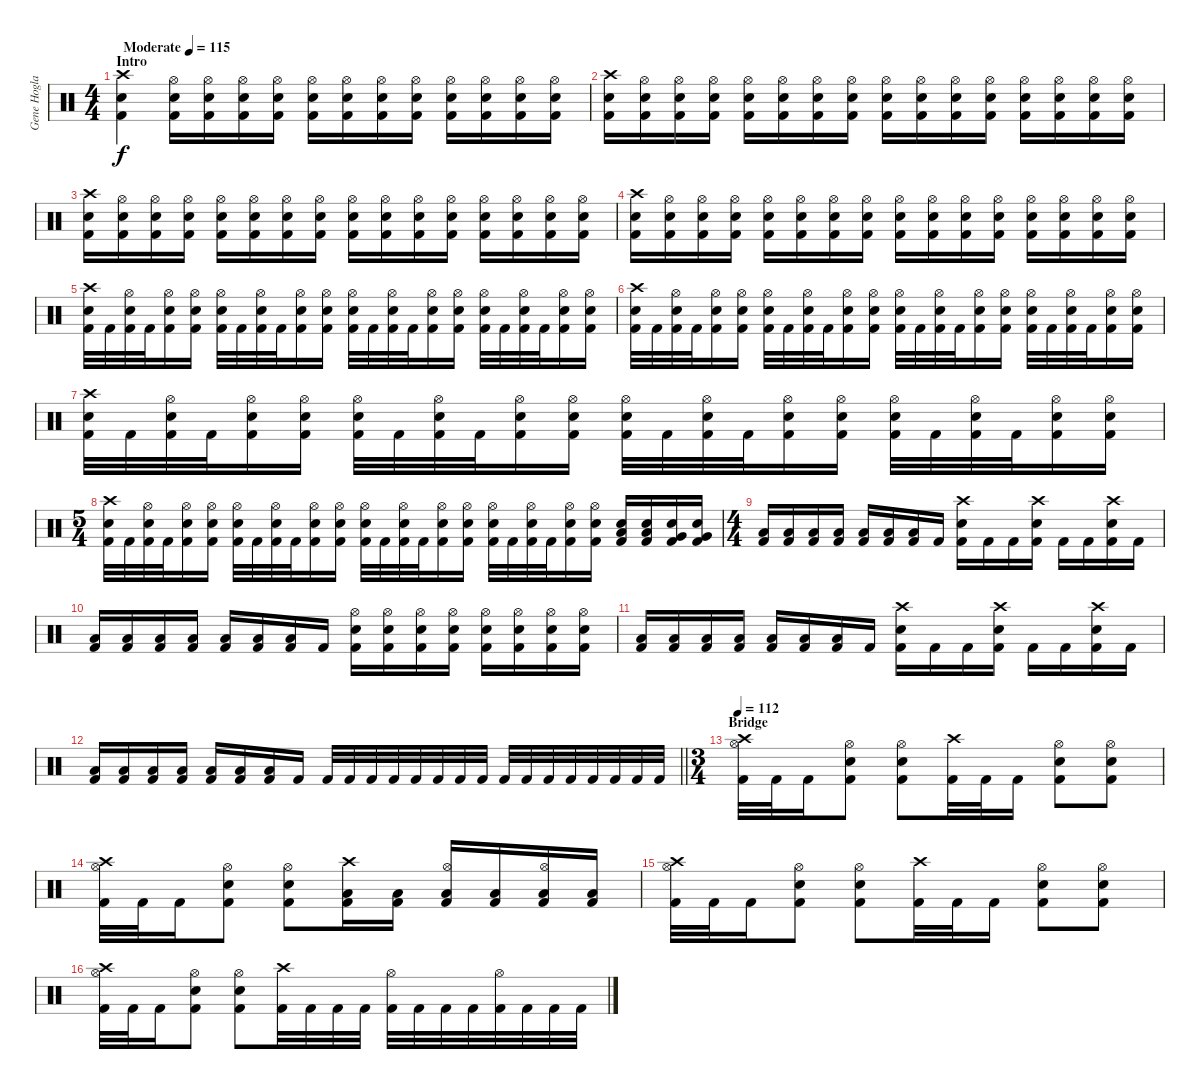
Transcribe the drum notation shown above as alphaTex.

\track ("Gene Hogland" "Gene Hogla") {instrument percussion}
\staff {score}
\articulation defaults
\ts (4 4)
\section ("" "Intro")
\tempo (115 "Moderate")
\clef neutral
\ks c
("Crash high (hit)" "Electric Snare (hit)" "Kick (hit) 2").4{dy f} ("Hi-Hat (open)" "Electric Snare (hit)" "Kick (hit) 2").16 ("Hi-Hat (open)" "Electric Snare (hit)" "Kick (hit) 2").16 ("Hi-Hat (open)" "Electric Snare (hit)" "Kick (hit) 2").16 ("Hi-Hat (open)" "Electric Snare (hit)" "Kick (hit) 2").16 ("Hi-Hat (open)" "Electric Snare (hit)" "Kick (hit) 2").16 ("Hi-Hat (open)" "Electric Snare (hit)" "Kick (hit) 2").16 ("Hi-Hat (open)" "Electric Snare (hit)" "Kick (hit) 2").16 ("Hi-Hat (open)" "Electric Snare (hit)" "Kick (hit) 2").16 ("Hi-Hat (open)" "Electric Snare (hit)" "Kick (hit) 2").16 ("Hi-Hat (open)" "Electric Snare (hit)" "Kick (hit) 2").16 ("Hi-Hat (open)" "Electric Snare (hit)" "Kick (hit) 2").16 ("Hi-Hat (open)" "Electric Snare (hit)" "Kick (hit) 2").16 |
("Crash high (hit)" "Electric Snare (hit)" "Kick (hit) 2").16 ("Hi-Hat (open)" "Electric Snare (hit)" "Kick (hit) 2").16 ("Hi-Hat (open)" "Electric Snare (hit)" "Kick (hit) 2").16 ("Hi-Hat (open)" "Electric Snare (hit)" "Kick (hit) 2").16 ("Hi-Hat (open)" "Electric Snare (hit)" "Kick (hit) 2").16 ("Hi-Hat (open)" "Electric Snare (hit)" "Kick (hit) 2").16 ("Hi-Hat (open)" "Electric Snare (hit)" "Kick (hit) 2").16 ("Hi-Hat (open)" "Electric Snare (hit)" "Kick (hit) 2").16 ("Hi-Hat (open)" "Electric Snare (hit)" "Kick (hit) 2").16 ("Hi-Hat (open)" "Electric Snare (hit)" "Kick (hit) 2").16 ("Hi-Hat (open)" "Electric Snare (hit)" "Kick (hit) 2").16 ("Hi-Hat (open)" "Electric Snare (hit)" "Kick (hit) 2").16 ("Hi-Hat (open)" "Electric Snare (hit)" "Kick (hit) 2").16 ("Hi-Hat (open)" "Electric Snare (hit)" "Kick (hit) 2").16 ("Hi-Hat (open)" "Electric Snare (hit)" "Kick (hit) 2").16 ("Hi-Hat (open)" "Electric Snare (hit)" "Kick (hit) 2").16 |
("Crash high (hit)" "Electric Snare (hit)" "Kick (hit) 2").16 ("Hi-Hat (open)" "Electric Snare (hit)" "Kick (hit) 2").16 ("Hi-Hat (open)" "Electric Snare (hit)" "Kick (hit) 2").16 ("Hi-Hat (open)" "Electric Snare (hit)" "Kick (hit) 2").16 ("Hi-Hat (open)" "Electric Snare (hit)" "Kick (hit) 2").16 ("Hi-Hat (open)" "Electric Snare (hit)" "Kick (hit) 2").16 ("Hi-Hat (open)" "Electric Snare (hit)" "Kick (hit) 2").16 ("Hi-Hat (open)" "Electric Snare (hit)" "Kick (hit) 2").16 ("Hi-Hat (open)" "Electric Snare (hit)" "Kick (hit) 2").16 ("Hi-Hat (open)" "Electric Snare (hit)" "Kick (hit) 2").16 ("Hi-Hat (open)" "Electric Snare (hit)" "Kick (hit) 2").16 ("Hi-Hat (open)" "Electric Snare (hit)" "Kick (hit) 2").16 ("Hi-Hat (open)" "Electric Snare (hit)" "Kick (hit) 2").16 ("Hi-Hat (open)" "Electric Snare (hit)" "Kick (hit) 2").16 ("Hi-Hat (open)" "Electric Snare (hit)" "Kick (hit) 2").16 ("Hi-Hat (open)" "Electric Snare (hit)" "Kick (hit) 2").16 |
("Crash high (hit)" "Electric Snare (hit)" "Kick (hit) 2").16 ("Hi-Hat (open)" "Electric Snare (hit)" "Kick (hit) 2").16 ("Hi-Hat (open)" "Electric Snare (hit)" "Kick (hit) 2").16 ("Hi-Hat (open)" "Electric Snare (hit)" "Kick (hit) 2").16 ("Hi-Hat (open)" "Electric Snare (hit)" "Kick (hit) 2").16 ("Hi-Hat (open)" "Electric Snare (hit)" "Kick (hit) 2").16 ("Hi-Hat (open)" "Electric Snare (hit)" "Kick (hit) 2").16 ("Hi-Hat (open)" "Electric Snare (hit)" "Kick (hit) 2").16 ("Hi-Hat (open)" "Electric Snare (hit)" "Kick (hit) 2").16 ("Hi-Hat (open)" "Electric Snare (hit)" "Kick (hit) 2").16 ("Hi-Hat (open)" "Electric Snare (hit)" "Kick (hit) 2").16 ("Hi-Hat (open)" "Electric Snare (hit)" "Kick (hit) 2").16 ("Hi-Hat (open)" "Electric Snare (hit)" "Kick (hit) 2").16 ("Hi-Hat (open)" "Electric Snare (hit)" "Kick (hit) 2").16 ("Hi-Hat (open)" "Electric Snare (hit)" "Kick (hit) 2").16 ("Hi-Hat (open)" "Electric Snare (hit)" "Kick (hit) 2").16 |
("Crash high (hit)" "Electric Snare (hit)" "Kick (hit) 2").32 "Kick (hit) 2".32 ("Hi-Hat (open)" "Electric Snare (hit)" "Kick (hit) 2").32 "Kick (hit) 2".32 ("Hi-Hat (open)" "Electric Snare (hit)" "Kick (hit) 2").16 ("Hi-Hat (open)" "Electric Snare (hit)" "Kick (hit) 2").16 ("Hi-Hat (open)" "Electric Snare (hit)" "Kick (hit) 2").32 "Kick (hit) 2".32 ("Hi-Hat (open)" "Electric Snare (hit)" "Kick (hit) 2").32 "Kick (hit) 2".32 ("Hi-Hat (open)" "Electric Snare (hit)" "Kick (hit) 2").16 ("Hi-Hat (open)" "Electric Snare (hit)" "Kick (hit) 2").16 ("Hi-Hat (open)" "Electric Snare (hit)" "Kick (hit) 2").32 "Kick (hit) 2".32 ("Hi-Hat (open)" "Electric Snare (hit)" "Kick (hit) 2").32 "Kick (hit) 2".32 ("Hi-Hat (open)" "Electric Snare (hit)" "Kick (hit) 2").16 ("Hi-Hat (open)" "Electric Snare (hit)" "Kick (hit) 2").16 ("Hi-Hat (open)" "Electric Snare (hit)" "Kick (hit) 2").32 "Kick (hit) 2".32 ("Hi-Hat (open)" "Electric Snare (hit)" "Kick (hit) 2").32 "Kick (hit) 2".32 ("Hi-Hat (open)" "Electric Snare (hit)" "Kick (hit) 2").16 ("Hi-Hat (open)" "Electric Snare (hit)" "Kick (hit) 2").16 |
("Crash high (hit)" "Electric Snare (hit)" "Kick (hit) 2").32 "Kick (hit) 2".32 ("Hi-Hat (open)" "Electric Snare (hit)" "Kick (hit) 2").32 "Kick (hit) 2".32 ("Hi-Hat (open)" "Electric Snare (hit)" "Kick (hit) 2").16 ("Hi-Hat (open)" "Electric Snare (hit)" "Kick (hit) 2").16 ("Hi-Hat (open)" "Electric Snare (hit)" "Kick (hit) 2").32 "Kick (hit) 2".32 ("Hi-Hat (open)" "Electric Snare (hit)" "Kick (hit) 2").32 "Kick (hit) 2".32 ("Hi-Hat (open)" "Electric Snare (hit)" "Kick (hit) 2").16 ("Hi-Hat (open)" "Electric Snare (hit)" "Kick (hit) 2").16 ("Hi-Hat (open)" "Electric Snare (hit)" "Kick (hit) 2").32 "Kick (hit) 2".32 ("Hi-Hat (open)" "Electric Snare (hit)" "Kick (hit) 2").32 "Kick (hit) 2".32 ("Hi-Hat (open)" "Electric Snare (hit)" "Kick (hit) 2").16 ("Hi-Hat (open)" "Electric Snare (hit)" "Kick (hit) 2").16 ("Hi-Hat (open)" "Electric Snare (hit)" "Kick (hit) 2").32 "Kick (hit) 2".32 ("Hi-Hat (open)" "Electric Snare (hit)" "Kick (hit) 2").32 "Kick (hit) 2".32 ("Hi-Hat (open)" "Electric Snare (hit)" "Kick (hit) 2").16 ("Hi-Hat (open)" "Electric Snare (hit)" "Kick (hit) 2").16 |
("Crash high (hit)" "Electric Snare (hit)" "Kick (hit) 2").32 "Kick (hit) 2".32 ("Hi-Hat (open)" "Electric Snare (hit)" "Kick (hit) 2").32 "Kick (hit) 2".32 ("Hi-Hat (open)" "Electric Snare (hit)" "Kick (hit) 2").16 ("Hi-Hat (open)" "Electric Snare (hit)" "Kick (hit) 2").16 ("Hi-Hat (open)" "Electric Snare (hit)" "Kick (hit) 2").32 "Kick (hit) 2".32 ("Hi-Hat (open)" "Electric Snare (hit)" "Kick (hit) 2").32 "Kick (hit) 2".32 ("Hi-Hat (open)" "Electric Snare (hit)" "Kick (hit) 2").16 ("Hi-Hat (open)" "Electric Snare (hit)" "Kick (hit) 2").16 ("Hi-Hat (open)" "Electric Snare (hit)" "Kick (hit) 2").32 "Kick (hit) 2".32 ("Hi-Hat (open)" "Electric Snare (hit)" "Kick (hit) 2").32 "Kick (hit) 2".32 ("Hi-Hat (open)" "Electric Snare (hit)" "Kick (hit) 2").16 ("Hi-Hat (open)" "Electric Snare (hit)" "Kick (hit) 2").16 ("Hi-Hat (open)" "Electric Snare (hit)" "Kick (hit) 2").32 "Kick (hit) 2".32 ("Hi-Hat (open)" "Electric Snare (hit)" "Kick (hit) 2").32 "Kick (hit) 2".32 ("Hi-Hat (open)" "Electric Snare (hit)" "Kick (hit) 2").16 ("Hi-Hat (open)" "Electric Snare (hit)" "Kick (hit) 2").16 |
\ts (5 4)
("Crash high (hit)" "Electric Snare (hit)" "Kick (hit) 2").32 "Kick (hit) 2".32 ("Hi-Hat (open)" "Electric Snare (hit)" "Kick (hit) 2").32 "Kick (hit) 2".32 ("Hi-Hat (open)" "Electric Snare (hit)" "Kick (hit) 2").16 ("Hi-Hat (open)" "Electric Snare (hit)" "Kick (hit) 2").16 ("Hi-Hat (open)" "Electric Snare (hit)" "Kick (hit) 2").32 "Kick (hit) 2".32 ("Hi-Hat (open)" "Electric Snare (hit)" "Kick (hit) 2").32 "Kick (hit) 2".32 ("Hi-Hat (open)" "Electric Snare (hit)" "Kick (hit) 2").16 ("Hi-Hat (open)" "Electric Snare (hit)" "Kick (hit) 2").16 ("Hi-Hat (open)" "Electric Snare (hit)" "Kick (hit) 2").32 "Kick (hit) 2".32 ("Hi-Hat (open)" "Electric Snare (hit)" "Kick (hit) 2").32 "Kick (hit) 2".32 ("Hi-Hat (open)" "Electric Snare (hit)" "Kick (hit) 2").16 ("Hi-Hat (open)" "Electric Snare (hit)" "Kick (hit) 2").16 ("Hi-Hat (open)" "Electric Snare (hit)" "Kick (hit) 2").32 "Kick (hit) 2".32 ("Hi-Hat (open)" "Electric Snare (hit)" "Kick (hit) 2").32 "Kick (hit) 2".32 ("Hi-Hat (open)" "Electric Snare (hit)" "Kick (hit) 2").16 ("Hi-Hat (open)" "Electric Snare (hit)" "Kick (hit) 2").16 ("Electric Snare (hit)" "Low Tom (hit)" "Kick (hit) 2").16 ("Electric Snare (hit)" "Low Tom (hit)" "Kick (hit) 2").16 ("Electric Snare (hit)" "Very Low Tom (hit)" "Kick (hit) 2").16 ("Electric Snare (hit)" "Very Low Tom (hit)" "Kick (hit) 2").16 |
\ts (4 4)
("Low Tom (hit)" "Kick (hit) 2").16 ("Low Tom (hit)" "Kick (hit) 2").16 ("Low Tom (hit)" "Kick (hit) 2").16 ("Low Tom (hit)" "Kick (hit) 2").16 ("Low Tom (hit)" "Kick (hit) 2").16 ("Low Tom (hit)" "Kick (hit) 2").16 ("Low Tom (hit)" "Kick (hit) 2").16 "Kick (hit) 2".16 ("Crash high (hit)" "Electric Snare (hit)" "Kick (hit) 2").16 "Kick (hit) 2".16 "Kick (hit) 2".16 ("Electric Snare (hit)" "Crash high (hit)" "Kick (hit) 2").16 "Kick (hit) 2".16 "Kick (hit) 2".16 ("Crash high (hit)" "Electric Snare (hit)" "Kick (hit) 2").16 "Kick (hit) 2".16 |
("Low Tom (hit)" "Kick (hit) 2").16 ("Low Tom (hit)" "Kick (hit) 2").16 ("Low Tom (hit)" "Kick (hit) 2").16 ("Low Tom (hit)" "Kick (hit) 2").16 ("Low Tom (hit)" "Kick (hit) 2").16 ("Low Tom (hit)" "Kick (hit) 2").16 ("Low Tom (hit)" "Kick (hit) 2").16 "Kick (hit) 2".16 ("Hi-Hat (open)" "Electric Snare (hit)" "Kick (hit) 2").16 ("Hi-Hat (open)" "Electric Snare (hit)" "Kick (hit) 2").16 ("Hi-Hat (open)" "Electric Snare (hit)" "Kick (hit) 2").16 ("Hi-Hat (open)" "Electric Snare (hit)" "Kick (hit) 2").16 ("Hi-Hat (open)" "Electric Snare (hit)" "Kick (hit) 2").16 ("Hi-Hat (open)" "Electric Snare (hit)" "Kick (hit) 2").16 ("Hi-Hat (open)" "Electric Snare (hit)" "Kick (hit) 2").16 ("Hi-Hat (open)" "Electric Snare (hit)" "Kick (hit) 2").16 |
("Low Tom (hit)" "Kick (hit) 2").16 ("Low Tom (hit)" "Kick (hit) 2").16 ("Low Tom (hit)" "Kick (hit) 2").16 ("Low Tom (hit)" "Kick (hit) 2").16 ("Low Tom (hit)" "Kick (hit) 2").16 ("Low Tom (hit)" "Kick (hit) 2").16 ("Low Tom (hit)" "Kick (hit) 2").16 "Kick (hit) 2".16 ("Crash high (hit)" "Electric Snare (hit)" "Kick (hit) 2").16 "Kick (hit) 2".16 "Kick (hit) 2".16 ("Electric Snare (hit)" "Crash high (hit)" "Kick (hit) 2").16 "Kick (hit) 2".16 "Kick (hit) 2".16 ("Crash high (hit)" "Electric Snare (hit)" "Kick (hit) 2").16 "Kick (hit) 2".16 |
\barLineRight lightlight
("Low Tom (hit)" "Kick (hit) 2").16 ("Low Tom (hit)" "Kick (hit) 2").16 ("Low Tom (hit)" "Kick (hit) 2").16 ("Low Tom (hit)" "Kick (hit) 2").16 ("Low Tom (hit)" "Kick (hit) 2").16 ("Low Tom (hit)" "Kick (hit) 2").16 ("Low Tom (hit)" "Kick (hit) 2").16 "Kick (hit) 2".16 "Kick (hit) 2".32 "Kick (hit) 2".32 "Kick (hit) 2".32 "Kick (hit) 2".32 "Kick (hit) 2".32 "Kick (hit) 2".32 "Kick (hit) 2".32 "Kick (hit) 2".32 "Kick (hit) 2".32 "Kick (hit) 2".32 "Kick (hit) 2".32 "Kick (hit) 2".32 "Kick (hit) 2".32 "Kick (hit) 2".32 "Kick (hit) 2".32 "Kick (hit) 2".32 |
\ts (3 4)
\section ("" "Bridge")
\tempo 112
("Hi-Hat (open)" "Crash high (hit)" "Kick (hit) 2").32 "Kick (hit) 2".32 "Kick (hit) 2".16 ("Hi-Hat (open)" "Electric Snare (hit)" "Kick (hit) 2").8 ("Hi-Hat (open)" "Electric Snare (hit)" "Kick (hit) 2").8 ("Crash high (hit)" "Kick (hit) 2").32 "Kick (hit) 2".32 "Kick (hit) 2".16 ("Hi-Hat (open)" "Electric Snare (hit)" "Kick (hit) 2").8 ("Hi-Hat (open)" "Electric Snare (hit)" "Kick (hit) 2").8 |
("Hi-Hat (open)" "Crash high (hit)" "Kick (hit) 2").32 "Kick (hit) 2".32 "Kick (hit) 2".16 ("Hi-Hat (open)" "Electric Snare (hit)" "Kick (hit) 2").8 ("Hi-Hat (open)" "Electric Snare (hit)" "Kick (hit) 2").8 ("Crash high (hit)" "Low Tom (hit)" "Kick (hit) 2").16 ("Low Tom (hit)" "Kick (hit) 2").16 ("Hi-Hat (open)" "Low Tom (hit)" "Kick (hit) 2").16 ("Low Tom (hit)" "Kick (hit) 2").16 ("Hi-Hat (open)" "Low Tom (hit)" "Kick (hit) 2").16 ("Low Tom (hit)" "Kick (hit) 2").16 |
("Hi-Hat (open)" "Crash high (hit)" "Kick (hit) 2").32 "Kick (hit) 2".32 "Kick (hit) 2".16 ("Hi-Hat (open)" "Electric Snare (hit)" "Kick (hit) 2").8 ("Hi-Hat (open)" "Electric Snare (hit)" "Kick (hit) 2").8 ("Crash high (hit)" "Kick (hit) 2").32 "Kick (hit) 2".32 "Kick (hit) 2".16 ("Hi-Hat (open)" "Electric Snare (hit)" "Kick (hit) 2").8 ("Hi-Hat (open)" "Electric Snare (hit)" "Kick (hit) 2").8 |
("Hi-Hat (open)" "Crash high (hit)" "Kick (hit) 2").32 "Kick (hit) 2".32 "Kick (hit) 2".16 ("Hi-Hat (open)" "Electric Snare (hit)" "Kick (hit) 2").8 ("Hi-Hat (open)" "Electric Snare (hit)" "Kick (hit) 2").8 ("Crash high (hit)" "Kick (hit) 2").32 "Kick (hit) 2".32 "Kick (hit) 2".32 "Kick (hit) 2".32 ("Hi-Hat (open)" "Kick (hit) 2").32 "Kick (hit) 2".32 "Kick (hit) 2".32 "Kick (hit) 2".32 ("Hi-Hat (open)" "Kick (hit) 2").32 "Kick (hit) 2".32 "Kick (hit) 2".32 "Kick (hit) 2".32
